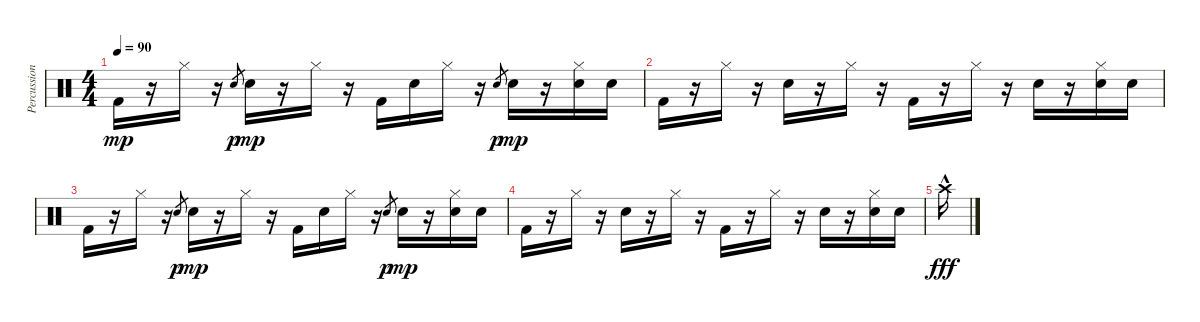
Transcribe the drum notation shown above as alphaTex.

\track ("Percussion" "Percussion") {instrument percussion}
\staff {score}
\articulation defaults
\ts (4 4)
\tempo 90
\clef neutral
\ks c "Kick (hit) 2".16{dy mp}
r.16 "Hi-Hat (closed)".16 r.16 "Snare (hit) 2".8{gr dy p} "Snare (hit) 2".16{dy mp} r.16 "Hi-Hat (closed)".16 r.16 "Kick (hit) 2".16 "Snare (hit) 2".16 "Hi-Hat (closed)".16 r.16 "Snare (hit) 2".8{gr dy p} "Snare (hit) 2".16{dy mp} r.16 ("Hi-Hat (closed)" "Snare (hit) 2").16 "Snare (hit) 2".16 |
"Kick (hit) 2".16 r.16 "Hi-Hat (closed)".16 r.16 "Snare (hit) 2".16 r.16 "Hi-Hat (closed)".16 r.16 "Kick (hit) 2".16 r.16 "Hi-Hat (closed)".16 r.16 "Snare (hit) 2".16 r.16 ("Hi-Hat (closed)" "Snare (hit) 2").16 "Snare (hit) 2".16 |
"Kick (hit) 2".16 r.16 "Hi-Hat (closed)".16 r.16 "Snare (hit) 2".8{gr dy p} "Snare (hit) 2".16{dy mp} r.16 "Hi-Hat (closed)".16 r.16 "Kick (hit) 2".16 "Snare (hit) 2".16 "Hi-Hat (closed)".16 r.16 "Snare (hit) 2".8{gr dy p} "Snare (hit) 2".16{dy mp} r.16 ("Hi-Hat (closed)" "Snare (hit) 2").16 "Snare (hit) 2".16 |
"Kick (hit) 2".16 r.16 "Hi-Hat (closed)".16 r.16 "Snare (hit) 2".16 r.16 "Hi-Hat (closed)".16 r.16 "Kick (hit) 2".16 r.16 "Hi-Hat (closed)".16 r.16 "Snare (hit) 2".16 r.16 ("Hi-Hat (closed)" "Snare (hit) 2").16 "Snare (hit) 2".16 |
"Crash high (hit)"{hac}.16{dy fff}
